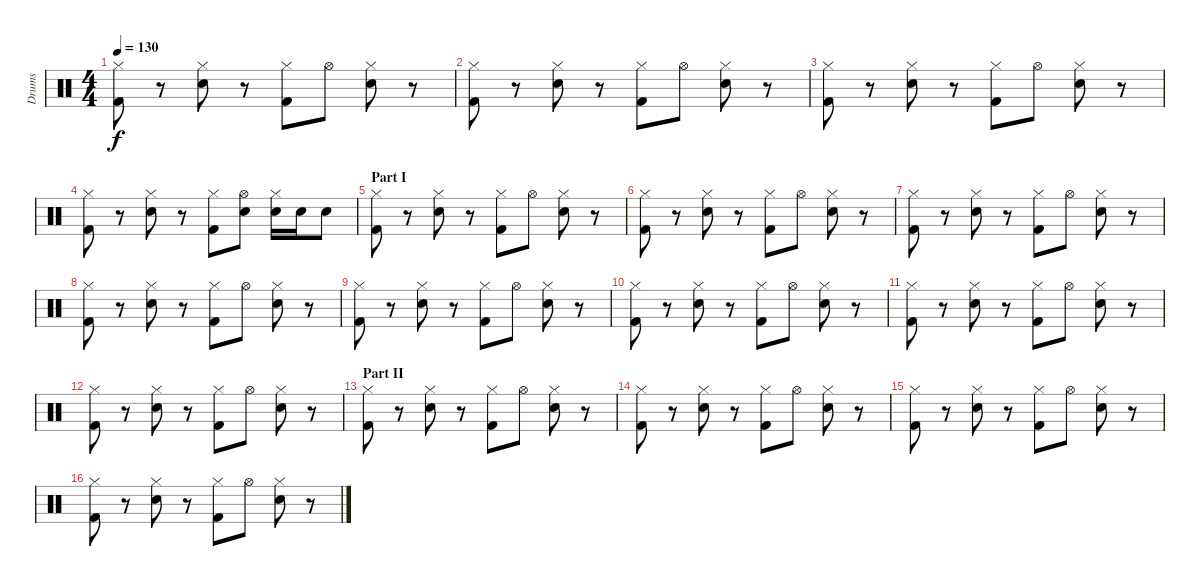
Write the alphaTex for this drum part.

\track ("Drums" "Drums") {instrument percussion}
\staff {score}
\articulation defaults
\ts (4 4)
\tempo 130
\clef neutral
\ks c
("Kick (hit) 2" "Hi-Hat (closed)").8{dy f} r.8 ("Snare (hit) 2" "Hi-Hat (closed)").8 r.8 ("Kick (hit) 2" "Hi-Hat (closed)").8 "Hi-Hat (open)".8 ("Snare (hit) 2" "Hi-Hat (closed)").8 r.8 |
("Kick (hit) 2" "Hi-Hat (closed)").8 r.8 ("Snare (hit) 2" "Hi-Hat (closed)").8 r.8 ("Kick (hit) 2" "Hi-Hat (closed)").8 "Hi-Hat (open)".8 ("Snare (hit) 2" "Hi-Hat (closed)").8 r.8 |
("Kick (hit) 2" "Hi-Hat (closed)").8 r.8 ("Snare (hit) 2" "Hi-Hat (closed)").8 r.8 ("Kick (hit) 2" "Hi-Hat (closed)").8 "Hi-Hat (open)".8 ("Snare (hit) 2" "Hi-Hat (closed)").8 r.8 |
("Kick (hit) 2" "Hi-Hat (closed)").8 r.8 ("Snare (hit) 2" "Hi-Hat (closed)").8 r.8 ("Kick (hit) 2" "Hi-Hat (closed)").8 ("Electric Snare (hit)" "Hi-Hat (open)").8 ("Snare (hit) 2" "Hi-Hat (closed)").16 "Electric Snare (hit)".16 "Electric Snare (hit)".8 |
\section ("" "Part I")
("Kick (hit) 2" "Hi-Hat (closed)").8 r.8 ("Snare (hit) 2" "Hi-Hat (closed)").8 r.8 ("Kick (hit) 2" "Hi-Hat (closed)").8 "Hi-Hat (open)".8 ("Snare (hit) 2" "Hi-Hat (closed)").8 r.8 |
("Kick (hit) 2" "Hi-Hat (closed)").8 r.8 ("Snare (hit) 2" "Hi-Hat (closed)").8 r.8 ("Kick (hit) 2" "Hi-Hat (closed)").8 "Hi-Hat (open)".8 ("Snare (hit) 2" "Hi-Hat (closed)").8 r.8 |
("Kick (hit) 2" "Hi-Hat (closed)").8 r.8 ("Snare (hit) 2" "Hi-Hat (closed)").8 r.8 ("Kick (hit) 2" "Hi-Hat (closed)").8 "Hi-Hat (open)".8 ("Snare (hit) 2" "Hi-Hat (closed)").8 r.8 |
("Kick (hit) 2" "Hi-Hat (closed)").8 r.8 ("Snare (hit) 2" "Hi-Hat (closed)").8 r.8 ("Kick (hit) 2" "Hi-Hat (closed)").8 "Hi-Hat (open)".8 ("Snare (hit) 2" "Hi-Hat (closed)").8 r.8 |
("Kick (hit) 2" "Hi-Hat (closed)").8 r.8 ("Snare (hit) 2" "Hi-Hat (closed)").8 r.8 ("Kick (hit) 2" "Hi-Hat (closed)").8 "Hi-Hat (open)".8 ("Snare (hit) 2" "Hi-Hat (closed)").8 r.8 |
("Kick (hit) 2" "Hi-Hat (closed)").8 r.8 ("Snare (hit) 2" "Hi-Hat (closed)").8 r.8 ("Kick (hit) 2" "Hi-Hat (closed)").8 "Hi-Hat (open)".8 ("Snare (hit) 2" "Hi-Hat (closed)").8 r.8 |
("Kick (hit) 2" "Hi-Hat (closed)").8 r.8 ("Snare (hit) 2" "Hi-Hat (closed)").8 r.8 ("Kick (hit) 2" "Hi-Hat (closed)").8 "Hi-Hat (open)".8 ("Snare (hit) 2" "Hi-Hat (closed)").8 r.8 |
("Kick (hit) 2" "Hi-Hat (closed)").8 r.8 ("Snare (hit) 2" "Hi-Hat (closed)").8 r.8 ("Kick (hit) 2" "Hi-Hat (closed)").8 "Hi-Hat (open)".8 ("Snare (hit) 2" "Hi-Hat (closed)").8 r.8 |
\section ("" "Part II")
("Kick (hit) 2" "Hi-Hat (closed)").8 r.8 ("Snare (hit) 2" "Hi-Hat (closed)").8 r.8 ("Kick (hit) 2" "Hi-Hat (closed)").8 "Hi-Hat (open)".8 ("Snare (hit) 2" "Hi-Hat (closed)").8 r.8 |
("Kick (hit) 2" "Hi-Hat (closed)").8 r.8 ("Snare (hit) 2" "Hi-Hat (closed)").8 r.8 ("Kick (hit) 2" "Hi-Hat (closed)").8 "Hi-Hat (open)".8 ("Snare (hit) 2" "Hi-Hat (closed)").8 r.8 |
("Kick (hit) 2" "Hi-Hat (closed)").8 r.8 ("Snare (hit) 2" "Hi-Hat (closed)").8 r.8 ("Kick (hit) 2" "Hi-Hat (closed)").8 "Hi-Hat (open)".8 ("Snare (hit) 2" "Hi-Hat (closed)").8 r.8 |
("Kick (hit) 2" "Hi-Hat (closed)").8 r.8 ("Snare (hit) 2" "Hi-Hat (closed)").8 r.8 ("Kick (hit) 2" "Hi-Hat (closed)").8 "Hi-Hat (open)".8 ("Snare (hit) 2" "Hi-Hat (closed)").8 r.8
